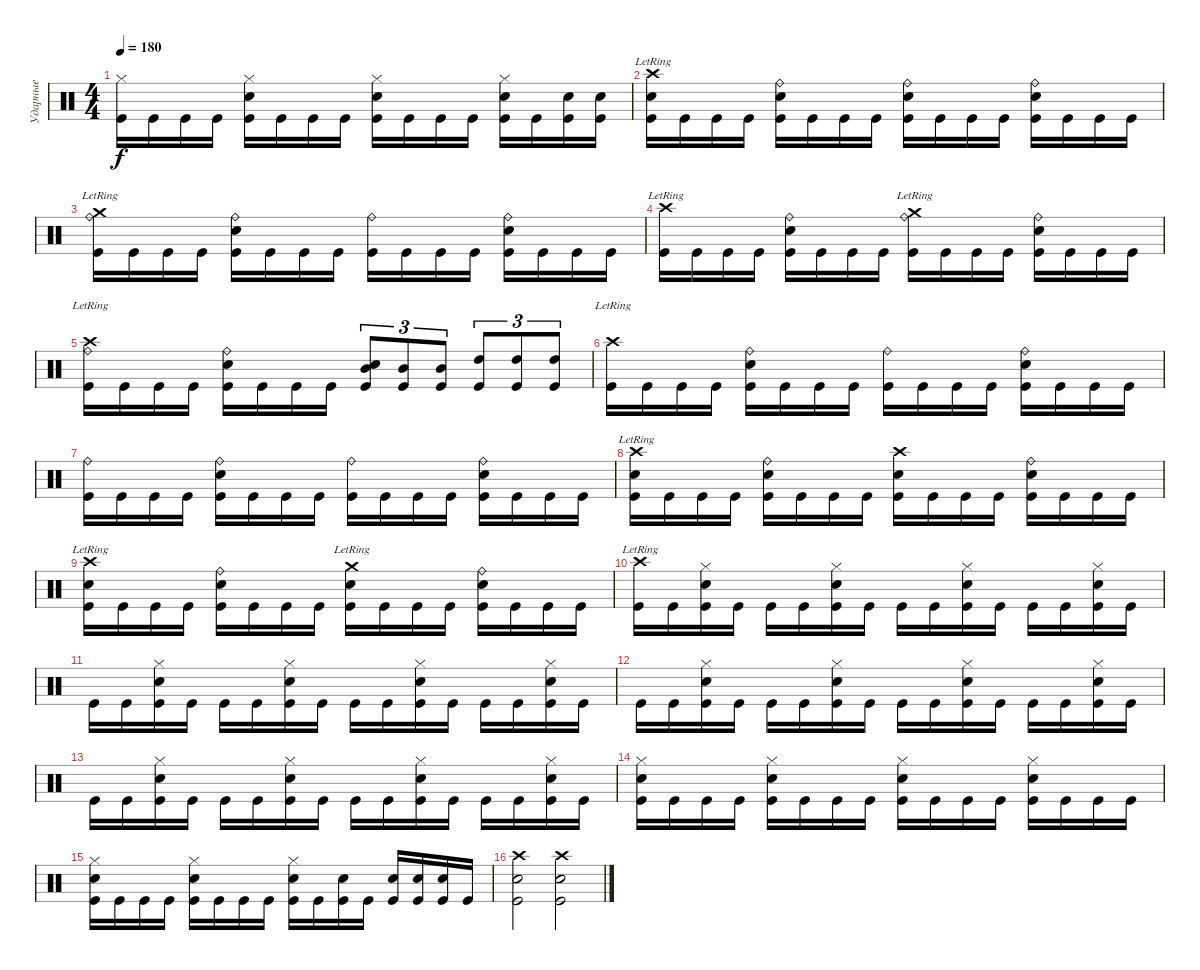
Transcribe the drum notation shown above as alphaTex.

\track ("Ударные" "Ударные") {instrument percussion}
\staff {score}
\articulation defaults
\ts (4 4)
\tempo 180
\clef neutral
\ks c
("Hi-Hat (closed)" "Kick (hit)").16{dy f} "Kick (hit)".16 "Kick (hit)".16 "Kick (hit)".16 ("Hi-Hat (closed)" "Electric Snare (hit)" "Kick (hit)").16 "Kick (hit)".16 "Kick (hit)".16 "Kick (hit)".16 ("Hi-Hat (closed)" "Electric Snare (hit)" "Kick (hit)").16 "Kick (hit)".16 "Kick (hit)".16 "Kick (hit)".16 ("Hi-Hat (closed)" "Electric Snare (hit)" "Kick (hit)").16 "Kick (hit)".16 ("Electric Snare (hit)" "Kick (hit)").16 ("Electric Snare (hit)" "Kick (hit)").16 |
("Crash high (hit)"{lr} "Electric Snare (hit)" "Kick (hit)").16 "Kick (hit)".16 "Kick (hit)".16 "Kick (hit)".16 ("Ride (bell)" "Electric Snare (hit)" "Kick (hit)").16 "Kick (hit)".16 "Kick (hit)".16 "Kick (hit)".16 ("Ride (bell)" "Electric Snare (hit)" "Kick (hit)").16 "Kick (hit)".16 "Kick (hit)".16 "Kick (hit)".16 ("Ride (bell)" "Electric Snare (hit)" "Kick (hit)").16 "Kick (hit)".16 "Kick (hit)".16 "Kick (hit)".16 |
("Crash medium (hit)"{lr} "Ride (bell)" "Kick (hit)").16 "Kick (hit)".16 "Kick (hit)".16 "Kick (hit)".16 ("Ride (bell)" "Electric Snare (hit)" "Kick (hit)").16 "Kick (hit)".16 "Kick (hit)".16 "Kick (hit)".16 ("Ride (bell)" "Kick (hit)").16 "Kick (hit)".16 "Kick (hit)".16 "Kick (hit)".16 ("Ride (bell)" "Electric Snare (hit)" "Kick (hit)").16 "Kick (hit)".16 "Kick (hit)".16 "Kick (hit)".16 |
("Crash high (hit)"{lr} "Kick (hit)").16 "Kick (hit)".16 "Kick (hit)".16 "Kick (hit)".16 ("Ride (bell)" "Electric Snare (hit)" "Kick (hit)").16 "Kick (hit)".16 "Kick (hit)".16 "Kick (hit)".16 ("Crash medium (hit)"{lr} "Ride (bell)" "Kick (hit)").16 "Kick (hit)".16 "Kick (hit)".16 "Kick (hit)".16 ("Ride (bell)" "Electric Snare (hit)" "Kick (hit)").16 "Kick (hit)".16 "Kick (hit)".16 "Kick (hit)".16 |
("Crash high (hit)"{lr} "Ride (bell)" "Kick (hit)").16 "Kick (hit)".16 "Kick (hit)".16 "Kick (hit)".16 ("Ride (bell)" "Electric Snare (hit)" "Kick (hit)").16 "Kick (hit)".16 "Kick (hit)".16 "Kick (hit)".16 ("Mid Tom (hit)" "Electric Snare (hit)" "Kick (hit)").8{tu (3 2)} ("Mid Tom (hit)" "Kick (hit)").8{tu (3 2)} ("Mid Tom (hit)" "Kick (hit)").8{tu (3 2)} ("High Tom (hit)" "Kick (hit)").8{tu (3 2)} ("High Tom (hit)" "Kick (hit)").8{tu (3 2)} ("High Tom (hit)" "Kick (hit)").8{tu (3 2)} |
("Crash high (hit)"{lr} "Kick (hit)").16 "Kick (hit)".16 "Kick (hit)".16 "Kick (hit)".16 ("Ride (bell)" "Electric Snare (hit)" "Kick (hit)").16 "Kick (hit)".16 "Kick (hit)".16 "Kick (hit)".16 ("Ride (bell)" "Kick (hit)").16 "Kick (hit)".16 "Kick (hit)".16 "Kick (hit)".16 ("Ride (bell)" "Electric Snare (hit)" "Kick (hit)").16 "Kick (hit)".16 "Kick (hit)".16 "Kick (hit)".16 |
("Ride (bell)" "Kick (hit)").16 "Kick (hit)".16 "Kick (hit)".16 "Kick (hit)".16 ("Ride (bell)" "Electric Snare (hit)" "Kick (hit)").16 "Kick (hit)".16 "Kick (hit)".16 "Kick (hit)".16 ("Ride (bell)" "Kick (hit)").16 "Kick (hit)".16 "Kick (hit)".16 "Kick (hit)".16 ("Ride (bell)" "Electric Snare (hit)" "Kick (hit)").16 "Kick (hit)".16 "Kick (hit)".16 "Kick (hit)".16 |
("Crash high (hit)"{lr} "Electric Snare (hit)" "Kick (hit)").16 "Kick (hit)".16 "Kick (hit)".16 "Kick (hit)".16 ("Ride (bell)" "Electric Snare (hit)" "Kick (hit)").16 "Kick (hit)".16 "Kick (hit)".16 "Kick (hit)".16 ("Crash high (hit)" "Electric Snare (hit)" "Kick (hit)").16 "Kick (hit)".16 "Kick (hit)".16 "Kick (hit)".16 ("Ride (bell)" "Electric Snare (hit)" "Kick (hit)").16 "Kick (hit)".16 "Kick (hit)".16 "Kick (hit)".16 |
("Crash high (hit)"{lr} "Electric Snare (hit)" "Kick (hit)").16 "Kick (hit)".16 "Kick (hit)".16 "Kick (hit)".16 ("Ride (bell)" "Electric Snare (hit)" "Kick (hit)").16 "Kick (hit)".16 "Kick (hit)".16 "Kick (hit)".16 ("Crash medium (hit)"{lr} "Electric Snare (hit)" "Kick (hit)").16 "Kick (hit)".16 "Kick (hit)".16 "Kick (hit)".16 ("Ride (bell)" "Electric Snare (hit)" "Kick (hit)").16 "Kick (hit)".16 "Kick (hit)".16 "Kick (hit)".16 |
("Crash high (hit)"{lr} "Kick (hit)").16 "Kick (hit)".16 ("Hi-Hat (closed)" "Electric Snare (hit)" "Kick (hit)").16 "Kick (hit)".16 "Kick (hit)".16 "Kick (hit)".16 ("Hi-Hat (closed)" "Electric Snare (hit)" "Kick (hit)").16 "Kick (hit)".16 "Kick (hit)".16 "Kick (hit)".16 ("Hi-Hat (closed)" "Electric Snare (hit)" "Kick (hit)").16 "Kick (hit)".16 "Kick (hit)".16 "Kick (hit)".16 ("Hi-Hat (closed)" "Electric Snare (hit)" "Kick (hit)").16 "Kick (hit)".16 |
"Kick (hit)".16 "Kick (hit)".16 ("Hi-Hat (closed)" "Electric Snare (hit)" "Kick (hit)").16 "Kick (hit)".16 "Kick (hit)".16 "Kick (hit)".16 ("Hi-Hat (closed)" "Electric Snare (hit)" "Kick (hit)").16 "Kick (hit)".16 "Kick (hit)".16 "Kick (hit)".16 ("Hi-Hat (closed)" "Electric Snare (hit)" "Kick (hit)").16 "Kick (hit)".16 "Kick (hit)".16 "Kick (hit)".16 ("Hi-Hat (closed)" "Electric Snare (hit)" "Kick (hit)").16 "Kick (hit)".16 |
"Kick (hit)".16 "Kick (hit)".16 ("Hi-Hat (closed)" "Electric Snare (hit)" "Kick (hit)").16 "Kick (hit)".16 "Kick (hit)".16 "Kick (hit)".16 ("Hi-Hat (closed)" "Electric Snare (hit)" "Kick (hit)").16 "Kick (hit)".16 "Kick (hit)".16 "Kick (hit)".16 ("Hi-Hat (closed)" "Electric Snare (hit)" "Kick (hit)").16 "Kick (hit)".16 "Kick (hit)".16 "Kick (hit)".16 ("Hi-Hat (closed)" "Electric Snare (hit)" "Kick (hit)").16 "Kick (hit)".16 |
"Kick (hit)".16 "Kick (hit)".16 ("Hi-Hat (closed)" "Electric Snare (hit)" "Kick (hit)").16 "Kick (hit)".16 "Kick (hit)".16 "Kick (hit)".16 ("Hi-Hat (closed)" "Electric Snare (hit)" "Kick (hit)").16 "Kick (hit)".16 "Kick (hit)".16 "Kick (hit)".16 ("Hi-Hat (closed)" "Electric Snare (hit)" "Kick (hit)").16 "Kick (hit)".16 "Kick (hit)".16 "Kick (hit)".16 ("Hi-Hat (closed)" "Electric Snare (hit)" "Kick (hit)").16 "Kick (hit)".16 |
("Hi-Hat (closed)" "Electric Snare (hit)" "Kick (hit)").16 "Kick (hit)".16 "Kick (hit)".16 "Kick (hit)".16 ("Hi-Hat (closed)" "Electric Snare (hit)" "Kick (hit)").16 "Kick (hit)".16 "Kick (hit)".16 "Kick (hit)".16 ("Hi-Hat (closed)" "Electric Snare (hit)" "Kick (hit)").16 "Kick (hit)".16 "Kick (hit)".16 "Kick (hit)".16 ("Hi-Hat (closed)" "Electric Snare (hit)" "Kick (hit)").16 "Kick (hit)".16 "Kick (hit)".16 "Kick (hit)".16 |
("Hi-Hat (closed)" "Electric Snare (hit)" "Kick (hit)").16 "Kick (hit)".16 "Kick (hit)".16 "Kick (hit)".16 ("Hi-Hat (closed)" "Electric Snare (hit)" "Kick (hit)").16 "Kick (hit)".16 "Kick (hit)".16 "Kick (hit)".16 ("Hi-Hat (closed)" "Electric Snare (hit)" "Kick (hit)").16 "Kick (hit)".16 ("Electric Snare (hit)" "Kick (hit)").16 "Kick (hit)".16 ("Electric Snare (hit)" "Kick (hit)").16 ("Electric Snare (hit)" "Kick (hit)").16 ("Electric Snare (hit)" "Kick (hit)").16 "Kick (hit)".16 |
("Crash high (hit)" "Electric Snare (hit)" "Kick (hit)").2 ("Crash high (hit)" "Electric Snare (hit)" "Kick (hit)").2
